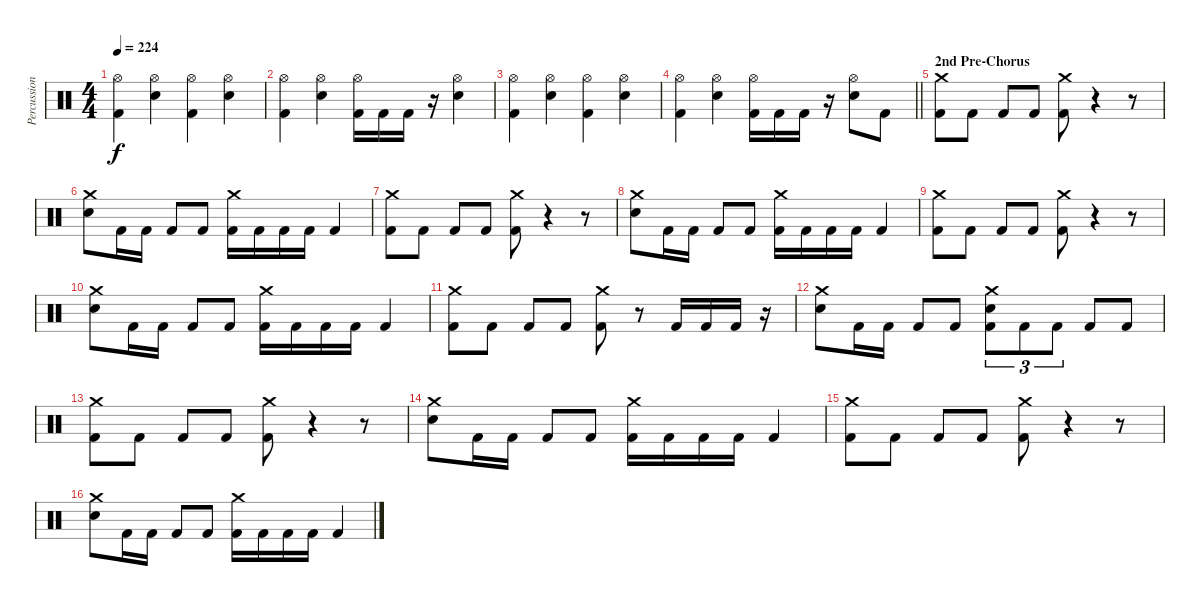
\track ("Percussion" "Percussion") {instrument percussion}
\staff {score}
\articulation defaults
\ts (4 4)
\tempo 224
\clef neutral
\ks c
("Kick (hit) 2" "Hi-Hat (open)").4{dy f} ("Snare (hit) 2" "Hi-Hat (open)").4 ("Kick (hit) 2" "Hi-Hat (open)").4 ("Snare (hit) 2" "Hi-Hat (open)").4 |
("Kick (hit) 2" "Hi-Hat (open)").4 ("Snare (hit) 2" "Hi-Hat (open)").4 ("Kick (hit) 2" "Hi-Hat (open)").16 "Kick (hit) 2".16 "Kick (hit) 2".16 r.16 ("Snare (hit) 2" "Hi-Hat (open)").4 |
("Kick (hit) 2" "Hi-Hat (open)").4 ("Snare (hit) 2" "Hi-Hat (open)").4 ("Kick (hit) 2" "Hi-Hat (open)").4 ("Snare (hit) 2" "Hi-Hat (open)").4 |
\barLineRight lightlight
("Kick (hit) 2" "Hi-Hat (open)").4 ("Snare (hit) 2" "Hi-Hat (open)").4 ("Kick (hit) 2" "Hi-Hat (open)").16 "Kick (hit) 2".16 "Kick (hit) 2".16 r.16 ("Snare (hit) 2" "Hi-Hat (open)").8 "Kick (hit) 2".8 |
\section ("" "2nd Pre-Chorus")
("Kick (hit) 2" "Crash medium (hit)").8 "Kick (hit) 2".8 "Kick (hit) 2".8 "Kick (hit) 2".8 ("Kick (hit) 2" "Crash medium (hit)").8 r.4 r.8 |
("Snare (hit) 2" "Crash medium (hit)").8 "Kick (hit) 2".16 "Kick (hit) 2".16 "Kick (hit) 2".8 "Kick (hit) 2".8 ("Kick (hit) 2" "Crash medium (hit)").16 "Kick (hit) 2".16 "Kick (hit) 2".16 "Kick (hit) 2".16 "Kick (hit) 2".4 |
("Kick (hit) 2" "Crash medium (hit)").8 "Kick (hit) 2".8 "Kick (hit) 2".8 "Kick (hit) 2".8 ("Kick (hit) 2" "Crash medium (hit)").8 r.4 r.8 |
("Snare (hit) 2" "Crash medium (hit)").8 "Kick (hit) 2".16 "Kick (hit) 2".16 "Kick (hit) 2".8 "Kick (hit) 2".8 ("Kick (hit) 2" "Crash medium (hit)").16 "Kick (hit) 2".16 "Kick (hit) 2".16 "Kick (hit) 2".16 "Kick (hit) 2".4 |
("Kick (hit) 2" "Crash medium (hit)").8 "Kick (hit) 2".8 "Kick (hit) 2".8 "Kick (hit) 2".8 ("Kick (hit) 2" "Crash medium (hit)").8 r.4 r.8 |
("Snare (hit) 2" "Crash medium (hit)").8 "Kick (hit) 2".16 "Kick (hit) 2".16 "Kick (hit) 2".8 "Kick (hit) 2".8 ("Kick (hit) 2" "Crash medium (hit)").16 "Kick (hit) 2".16 "Kick (hit) 2".16 "Kick (hit) 2".16 "Kick (hit) 2".4 |
("Kick (hit) 2" "Crash medium (hit)").8 "Kick (hit) 2".8 "Kick (hit) 2".8 "Kick (hit) 2".8 ("Kick (hit) 2" "Crash medium (hit)").8 r.8 "Kick (hit) 2".16 "Kick (hit) 2".16 "Kick (hit) 2".16 r.16 |
("Snare (hit) 2" "Crash medium (hit)").8 "Kick (hit) 2".16 "Kick (hit) 2".16 "Kick (hit) 2".8 "Kick (hit) 2".8 ("Kick (hit) 2" "Snare (hit) 2" "Crash medium (hit)").8{tu (3 2)} "Kick (hit) 2".8{tu (3 2)} "Kick (hit) 2".8{tu (3 2)} "Kick (hit) 2".8 "Kick (hit) 2".8 |
("Kick (hit) 2" "Crash medium (hit)").8 "Kick (hit) 2".8 "Kick (hit) 2".8 "Kick (hit) 2".8 ("Kick (hit) 2" "Crash medium (hit)").8 r.4 r.8 |
("Snare (hit) 2" "Crash medium (hit)").8 "Kick (hit) 2".16 "Kick (hit) 2".16 "Kick (hit) 2".8 "Kick (hit) 2".8 ("Kick (hit) 2" "Crash medium (hit)").16 "Kick (hit) 2".16 "Kick (hit) 2".16 "Kick (hit) 2".16 "Kick (hit) 2".4 |
("Kick (hit) 2" "Crash medium (hit)").8 "Kick (hit) 2".8 "Kick (hit) 2".8 "Kick (hit) 2".8 ("Kick (hit) 2" "Crash medium (hit)").8 r.4 r.8 |
("Snare (hit) 2" "Crash medium (hit)").8 "Kick (hit) 2".16 "Kick (hit) 2".16 "Kick (hit) 2".8 "Kick (hit) 2".8 ("Kick (hit) 2" "Crash medium (hit)").16 "Kick (hit) 2".16 "Kick (hit) 2".16 "Kick (hit) 2".16 "Kick (hit) 2".4
